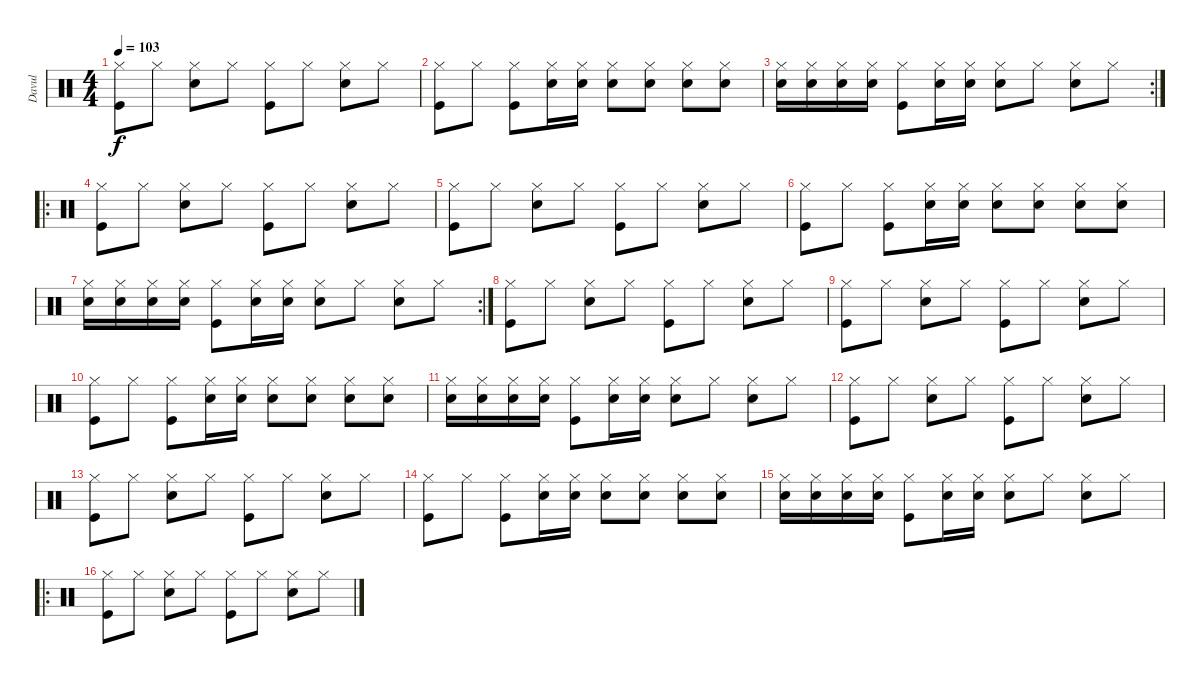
\track ("Davul" "Davul") {instrument percussion}
\staff {score}
\articulation defaults
\ts (4 4)
\tempo 103
\clef neutral
\ks c
("Hi-Hat (closed)" "Kick (hit)").8{dy f} "Hi-Hat (closed)".8 ("Hi-Hat (closed)" "Electric Snare (hit)").8 "Hi-Hat (closed)".8 ("Hi-Hat (closed)" "Kick (hit)").8 "Hi-Hat (closed)".8 ("Hi-Hat (closed)" "Electric Snare (hit)").8 "Hi-Hat (closed)".8 |
("Hi-Hat (closed)" "Kick (hit)").8 "Hi-Hat (closed)".8 ("Hi-Hat (closed)" "Kick (hit)").8 ("Hi-Hat (closed)" "Electric Snare (hit)").16 ("Hi-Hat (closed)" "Electric Snare (hit)").16 ("Hi-Hat (closed)" "Electric Snare (hit)").8 ("Hi-Hat (closed)" "Electric Snare (hit)").8 ("Hi-Hat (closed)" "Electric Snare (hit)").8 ("Hi-Hat (closed)" "Electric Snare (hit)").8 |
\rc 2
("Hi-Hat (closed)" "Electric Snare (hit)").16 ("Hi-Hat (closed)" "Electric Snare (hit)").16 ("Hi-Hat (closed)" "Electric Snare (hit)").16 ("Hi-Hat (closed)" "Electric Snare (hit)").16 ("Hi-Hat (closed)" "Kick (hit)").8 ("Hi-Hat (closed)" "Electric Snare (hit)").16 ("Hi-Hat (closed)" "Electric Snare (hit)").16 ("Hi-Hat (closed)" "Electric Snare (hit)").8 "Hi-Hat (closed)".8 ("Hi-Hat (closed)" "Electric Snare (hit)").8 "Hi-Hat (closed)".8 |
\ro
("Hi-Hat (closed)" "Kick (hit)").8 "Hi-Hat (closed)".8 ("Hi-Hat (closed)" "Electric Snare (hit)").8 "Hi-Hat (closed)".8 ("Hi-Hat (closed)" "Kick (hit)").8 "Hi-Hat (closed)".8 ("Hi-Hat (closed)" "Electric Snare (hit)").8 "Hi-Hat (closed)".8 |
("Hi-Hat (closed)" "Kick (hit)").8 "Hi-Hat (closed)".8 ("Hi-Hat (closed)" "Electric Snare (hit)").8 "Hi-Hat (closed)".8 ("Hi-Hat (closed)" "Kick (hit)").8 "Hi-Hat (closed)".8 ("Hi-Hat (closed)" "Electric Snare (hit)").8 "Hi-Hat (closed)".8 |
("Hi-Hat (closed)" "Kick (hit)").8 "Hi-Hat (closed)".8 ("Hi-Hat (closed)" "Kick (hit)").8 ("Hi-Hat (closed)" "Electric Snare (hit)").16 ("Hi-Hat (closed)" "Electric Snare (hit)").16 ("Hi-Hat (closed)" "Electric Snare (hit)").8 ("Hi-Hat (closed)" "Electric Snare (hit)").8 ("Hi-Hat (closed)" "Electric Snare (hit)").8 ("Hi-Hat (closed)" "Electric Snare (hit)").8 |
\rc 2
("Hi-Hat (closed)" "Electric Snare (hit)").16 ("Hi-Hat (closed)" "Electric Snare (hit)").16 ("Hi-Hat (closed)" "Electric Snare (hit)").16 ("Hi-Hat (closed)" "Electric Snare (hit)").16 ("Hi-Hat (closed)" "Kick (hit)").8 ("Hi-Hat (closed)" "Electric Snare (hit)").16 ("Hi-Hat (closed)" "Electric Snare (hit)").16 ("Hi-Hat (closed)" "Electric Snare (hit)").8 "Hi-Hat (closed)".8 ("Hi-Hat (closed)" "Electric Snare (hit)").8 "Hi-Hat (closed)".8 |
("Hi-Hat (closed)" "Kick (hit)").8 "Hi-Hat (closed)".8 ("Hi-Hat (closed)" "Electric Snare (hit)").8 "Hi-Hat (closed)".8 ("Hi-Hat (closed)" "Kick (hit)").8 "Hi-Hat (closed)".8 ("Hi-Hat (closed)" "Electric Snare (hit)").8 "Hi-Hat (closed)".8 |
("Hi-Hat (closed)" "Kick (hit)").8 "Hi-Hat (closed)".8 ("Hi-Hat (closed)" "Electric Snare (hit)").8 "Hi-Hat (closed)".8 ("Hi-Hat (closed)" "Kick (hit)").8 "Hi-Hat (closed)".8 ("Hi-Hat (closed)" "Electric Snare (hit)").8 "Hi-Hat (closed)".8 |
("Hi-Hat (closed)" "Kick (hit)").8 "Hi-Hat (closed)".8 ("Hi-Hat (closed)" "Kick (hit)").8 ("Hi-Hat (closed)" "Electric Snare (hit)").16 ("Hi-Hat (closed)" "Electric Snare (hit)").16 ("Hi-Hat (closed)" "Electric Snare (hit)").8 ("Hi-Hat (closed)" "Electric Snare (hit)").8 ("Hi-Hat (closed)" "Electric Snare (hit)").8 ("Hi-Hat (closed)" "Electric Snare (hit)").8 |
("Hi-Hat (closed)" "Electric Snare (hit)").16 ("Hi-Hat (closed)" "Electric Snare (hit)").16 ("Hi-Hat (closed)" "Electric Snare (hit)").16 ("Hi-Hat (closed)" "Electric Snare (hit)").16 ("Hi-Hat (closed)" "Kick (hit)").8 ("Hi-Hat (closed)" "Electric Snare (hit)").16 ("Hi-Hat (closed)" "Electric Snare (hit)").16 ("Hi-Hat (closed)" "Electric Snare (hit)").8 "Hi-Hat (closed)".8 ("Hi-Hat (closed)" "Electric Snare (hit)").8 "Hi-Hat (closed)".8 |
("Hi-Hat (closed)" "Kick (hit)").8 "Hi-Hat (closed)".8 ("Hi-Hat (closed)" "Electric Snare (hit)").8 "Hi-Hat (closed)".8 ("Hi-Hat (closed)" "Kick (hit)").8 "Hi-Hat (closed)".8 ("Hi-Hat (closed)" "Electric Snare (hit)").8 "Hi-Hat (closed)".8 |
("Hi-Hat (closed)" "Kick (hit)").8 "Hi-Hat (closed)".8 ("Hi-Hat (closed)" "Electric Snare (hit)").8 "Hi-Hat (closed)".8 ("Hi-Hat (closed)" "Kick (hit)").8 "Hi-Hat (closed)".8 ("Hi-Hat (closed)" "Electric Snare (hit)").8 "Hi-Hat (closed)".8 |
("Hi-Hat (closed)" "Kick (hit)").8 "Hi-Hat (closed)".8 ("Hi-Hat (closed)" "Kick (hit)").8 ("Hi-Hat (closed)" "Electric Snare (hit)").16 ("Hi-Hat (closed)" "Electric Snare (hit)").16 ("Hi-Hat (closed)" "Electric Snare (hit)").8 ("Hi-Hat (closed)" "Electric Snare (hit)").8 ("Hi-Hat (closed)" "Electric Snare (hit)").8 ("Hi-Hat (closed)" "Electric Snare (hit)").8 |
("Hi-Hat (closed)" "Electric Snare (hit)").16 ("Hi-Hat (closed)" "Electric Snare (hit)").16 ("Hi-Hat (closed)" "Electric Snare (hit)").16 ("Hi-Hat (closed)" "Electric Snare (hit)").16 ("Hi-Hat (closed)" "Kick (hit)").8 ("Hi-Hat (closed)" "Electric Snare (hit)").16 ("Hi-Hat (closed)" "Electric Snare (hit)").16 ("Hi-Hat (closed)" "Electric Snare (hit)").8 "Hi-Hat (closed)".8 ("Hi-Hat (closed)" "Electric Snare (hit)").8 "Hi-Hat (closed)".8 |
\ro
("Hi-Hat (closed)" "Kick (hit)").8 "Hi-Hat (closed)".8 ("Hi-Hat (closed)" "Electric Snare (hit)").8 "Hi-Hat (closed)".8 ("Hi-Hat (closed)" "Kick (hit)").8 "Hi-Hat (closed)".8 ("Hi-Hat (closed)" "Electric Snare (hit)").8 "Hi-Hat (closed)".8
